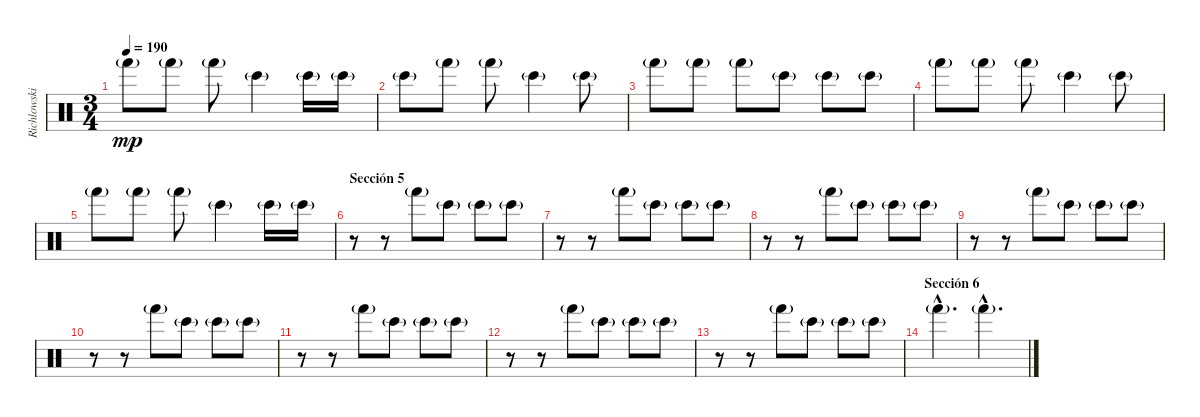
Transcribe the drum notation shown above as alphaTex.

\track ("Richlowski y Dj Raff" "Richlowski") {instrument percussion}
\staff {score}
\articulation defaults
\ts (3 4)
\tempo 190
\clef neutral
\ks c "Hand (hit)"{g}.8{dy mp} "Hand (hit)"{g}.8 "Hand (hit)"{g}.8 "Bongo High (hit)"{g}.4 "Bongo High (hit)"{g}.16 "Bongo High (hit)"{g}.16
|
"Bongo High (hit)"{g}.8 "Hand (hit)"{g}.8 "Hand (hit)"{g}.8 "Bongo High (hit)"{g}.4 "Bongo High (hit)"{g}.8 |
"Hand (hit)"{g}.8 "Hand (hit)"{g}.8 "Hand (hit)"{g}.8 "Bongo High (hit)"{g}.8 "Bongo High (hit)"{g}.8 "Bongo High (hit)"{g}.8 |
"Hand (hit)"{g}.8 "Hand (hit)"{g}.8 "Hand (hit)"{g}.8 "Bongo High (hit)"{g}.4 "Bongo High (hit)"{g}.8 |
"Hand (hit)"{g}.8 "Hand (hit)"{g}.8 "Hand (hit)"{g}.8 "Bongo High (hit)"{g}.4 "Bongo High (hit)"{g}.16 "Bongo High (hit)"{g}.16 |
\section ("" "Sección 5")
r.8 r.8 "Hand (hit)"{g}.8 "Bongo High (hit)"{g}.8 "Bongo High (hit)"{g}.8 "Bongo High (hit)"{g}.8 |
r.8 r.8 "Hand (hit)"{g}.8 "Bongo High (hit)"{g}.8 "Bongo High (hit)"{g}.8 "Bongo High (hit)"{g}.8 |
r.8 r.8 "Hand (hit)"{g}.8 "Bongo High (hit)"{g}.8 "Bongo High (hit)"{g}.8 "Bongo High (hit)"{g}.8 |
r.8 r.8 "Hand (hit)"{g}.8 "Bongo High (hit)"{g}.8 "Bongo High (hit)"{g}.8 "Bongo High (hit)"{g}.8 |
r.8 r.8 "Hand (hit)"{g}.8 "Bongo High (hit)"{g}.8 "Bongo High (hit)"{g}.8 "Bongo High (hit)"{g}.8 |
r.8 r.8 "Hand (hit)"{g}.8 "Bongo High (hit)"{g}.8 "Bongo High (hit)"{g}.8 "Bongo High (hit)"{g}.8 |
r.8 r.8 "Hand (hit)"{g}.8 "Bongo High (hit)"{g}.8 "Bongo High (hit)"{g}.8 "Bongo High (hit)"{g}.8 |
r.8 r.8 "Hand (hit)"{g}.8 "Bongo High (hit)"{g}.8 "Bongo High (hit)"{g}.8 "Bongo High (hit)"{g}.8 |
\section ("" "Sección 6")
"Hand (hit)"{g hac}.4{d} "Hand (hit)"{g hac}.4{d}
